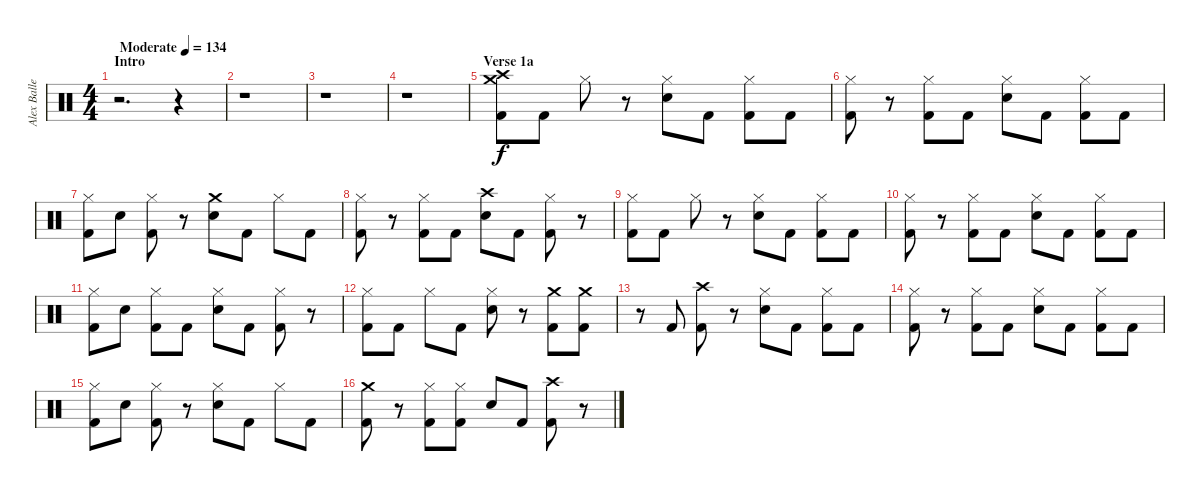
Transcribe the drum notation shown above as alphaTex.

\track ("Alex Ballew" "Alex Balle") {instrument percussion}
\staff {score}
\articulation defaults
\ts (4 4)
\section ("" "Intro ")
\tempo (134 "Moderate")
\clef neutral
\ks c
r.2{d dy f} r.4 |
r.1 |
r.1 |
r.1 |
\section ("" "Verse 1a")
("Crash medium (hit)" "Crash high (hit)" "Kick (hit) 2").8 "Kick (hit) 2".8 "Hi-Hat (closed)".8 r.8 ("Hi-Hat (closed)" "Electric Snare (hit)").8 "Kick (hit) 2".8 ("Hi-Hat (closed)" "Kick (hit) 2").8 "Kick (hit) 2".8 |
("Hi-Hat (closed)" "Kick (hit) 2").8 r.8 ("Hi-Hat (closed)" "Kick (hit) 2").8 "Kick (hit) 2".8 ("Hi-Hat (closed)" "Electric Snare (hit)").8 "Kick (hit) 2".8 ("Hi-Hat (closed)" "Kick (hit) 2").8 "Kick (hit) 2".8 |
("Hi-Hat (closed)" "Kick (hit) 2").8 "Electric Snare (hit)".8 ("Hi-Hat (closed)" "Kick (hit) 2").8 r.8 ("Crash medium (hit)" "Electric Snare (hit)").8 "Kick (hit) 2".8 "Hi-Hat (closed)".8 "Kick (hit) 2".8 |
("Hi-Hat (closed)" "Kick (hit) 2").8 r.8 ("Hi-Hat (closed)" "Kick (hit) 2").8 "Kick (hit) 2".8 ("Crash high (hit)" "Electric Snare (hit)").8 "Kick (hit) 2".8 ("Hi-Hat (closed)" "Kick (hit) 2").8 r.8 |
("Hi-Hat (closed)" "Kick (hit) 2").8 "Kick (hit) 2".8 "Hi-Hat (closed)".8 r.8 ("Hi-Hat (closed)" "Electric Snare (hit)").8 "Kick (hit) 2".8 ("Hi-Hat (closed)" "Kick (hit) 2").8 "Kick (hit) 2".8 |
("Hi-Hat (closed)" "Kick (hit) 2").8 r.8 ("Hi-Hat (closed)" "Kick (hit) 2").8 "Kick (hit) 2".8 ("Hi-Hat (closed)" "Electric Snare (hit)").8 "Kick (hit) 2".8 ("Hi-Hat (closed)" "Kick (hit) 2").8 "Kick (hit) 2".8 |
("Hi-Hat (closed)" "Kick (hit) 2").8 "Electric Snare (hit)".8 ("Hi-Hat (closed)" "Kick (hit) 2").8 "Kick (hit) 2".8 ("Hi-Hat (closed)" "Electric Snare (hit)").8 "Kick (hit) 2".8 ("Hi-Hat (closed)" "Kick (hit) 2").8 r.8 |
("Hi-Hat (closed)" "Kick (hit) 2").8 "Kick (hit) 2".8 "Hi-Hat (closed)".8 "Kick (hit) 2".8 ("Hi-Hat (closed)" "Electric Snare (hit)").8 r.8 ("Crash medium (hit)" "Kick (hit) 2").8 ("Crash medium (hit)" "Kick (hit) 2").8 |
r.8 "Kick (hit) 2".8 ("Crash high (hit)" "Kick (hit) 2").8 r.8 ("Hi-Hat (closed)" "Electric Snare (hit)").8 "Kick (hit) 2".8 ("Hi-Hat (closed)" "Kick (hit) 2").8 "Kick (hit) 2".8 |
("Hi-Hat (closed)" "Kick (hit) 2").8 r.8 ("Hi-Hat (closed)" "Kick (hit) 2").8 "Kick (hit) 2".8 ("Hi-Hat (closed)" "Electric Snare (hit)").8 "Kick (hit) 2".8 ("Hi-Hat (closed)" "Kick (hit) 2").8 "Kick (hit) 2".8 |
("Hi-Hat (closed)" "Kick (hit) 2").8 "Electric Snare (hit)".8 ("Hi-Hat (closed)" "Kick (hit) 2").8 r.8 ("Hi-Hat (closed)" "Electric Snare (hit)").8 "Kick (hit) 2".8 "Hi-Hat (closed)".8 "Kick (hit) 2".8 |
("Crash medium (hit)" "Kick (hit) 2").8 r.8 ("Hi-Hat (closed)" "Kick (hit) 2").8 ("Hi-Hat (closed)" "Kick (hit) 2").8 "Electric Snare (hit)".8 "Kick (hit) 2".8 ("Crash high (hit)" "Kick (hit) 2").8 r.8
